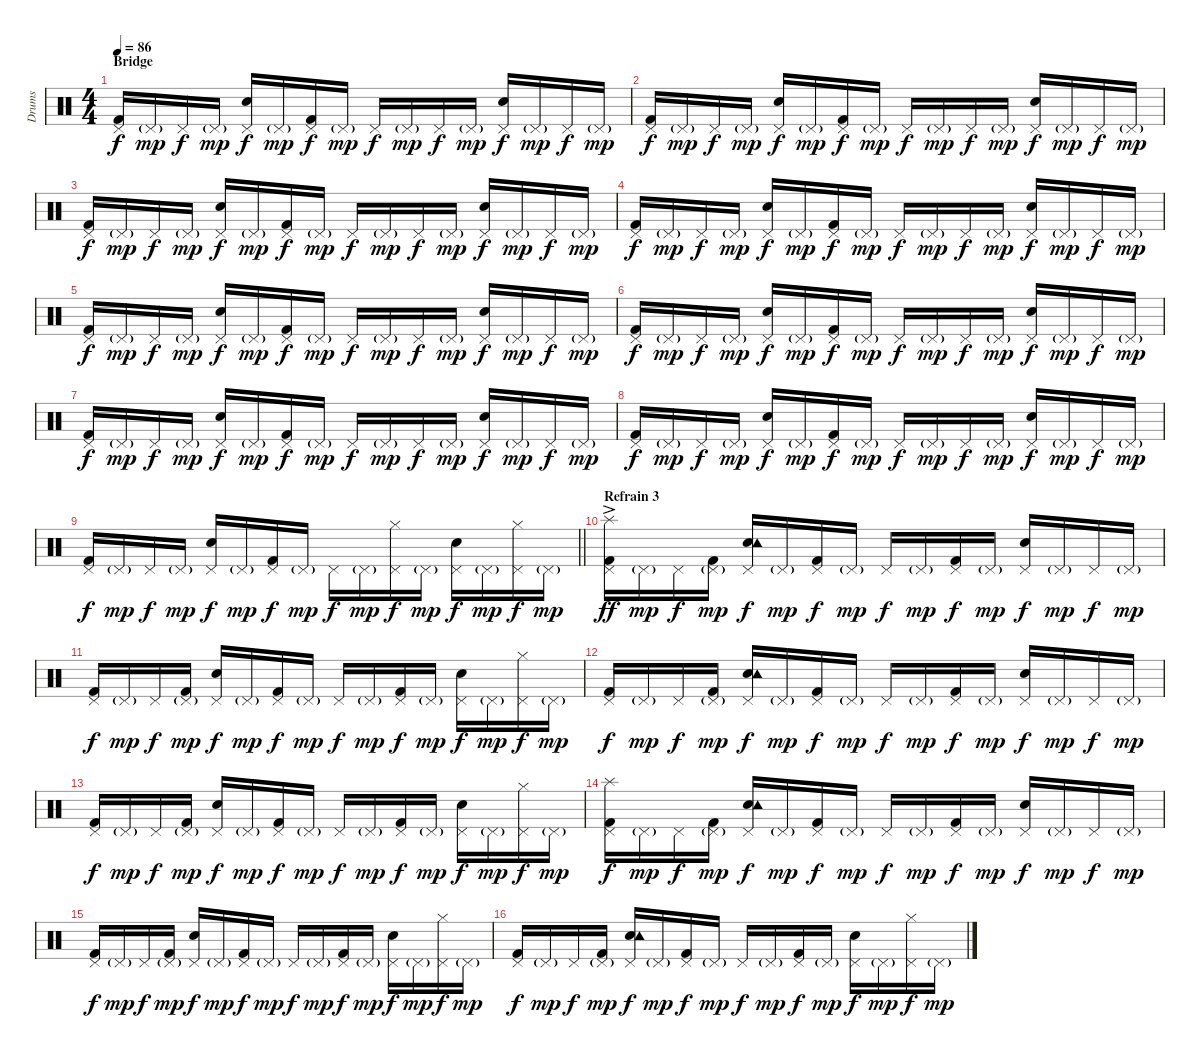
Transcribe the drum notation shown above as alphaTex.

\track ("Drums" "Drums") {instrument percussion}
\staff {score}
\articulation defaults
\ts (4 4)
\section ("" "Bridge")
\tempo 86
\clef neutral
\ks c
("Pedal Hi-Hat (hit)" "Kick (hit) 2").16{dy f} "Pedal Hi-Hat (hit)"{g}.16{dy mp} "Pedal Hi-Hat (hit)".16{dy f} "Pedal Hi-Hat (hit)"{g}.16{dy mp} ("Pedal Hi-Hat (hit)" "Snare (hit) 2").16{dy f} "Pedal Hi-Hat (hit)"{g}.16{dy mp} ("Pedal Hi-Hat (hit)" "Kick (hit) 2").16{dy f} "Pedal Hi-Hat (hit)"{g}.16{dy mp} "Pedal Hi-Hat (hit)".16{dy f} "Pedal Hi-Hat (hit)"{g}.16{dy mp} "Pedal Hi-Hat (hit)".16{dy f} "Pedal Hi-Hat (hit)"{g}.16{dy mp} ("Pedal Hi-Hat (hit)" "Snare (hit) 2").16{dy f} "Pedal Hi-Hat (hit)"{g}.16{dy mp} "Pedal Hi-Hat (hit)".16{dy f} "Pedal Hi-Hat (hit)"{g}.16{dy mp} |
("Pedal Hi-Hat (hit)" "Kick (hit) 2").16{dy f} "Pedal Hi-Hat (hit)"{g}.16{dy mp} "Pedal Hi-Hat (hit)".16{dy f} "Pedal Hi-Hat (hit)"{g}.16{dy mp} ("Pedal Hi-Hat (hit)" "Snare (hit) 2").16{dy f} "Pedal Hi-Hat (hit)"{g}.16{dy mp} ("Pedal Hi-Hat (hit)" "Kick (hit) 2").16{dy f} "Pedal Hi-Hat (hit)"{g}.16{dy mp} "Pedal Hi-Hat (hit)".16{dy f} "Pedal Hi-Hat (hit)"{g}.16{dy mp} "Pedal Hi-Hat (hit)".16{dy f} "Pedal Hi-Hat (hit)"{g}.16{dy mp} ("Pedal Hi-Hat (hit)" "Snare (hit) 2").16{dy f} "Pedal Hi-Hat (hit)"{g}.16{dy mp} "Pedal Hi-Hat (hit)".16{dy f} "Pedal Hi-Hat (hit)"{g}.16{dy mp} |
("Pedal Hi-Hat (hit)" "Kick (hit) 2").16{dy f} "Pedal Hi-Hat (hit)"{g}.16{dy mp} "Pedal Hi-Hat (hit)".16{dy f} "Pedal Hi-Hat (hit)"{g}.16{dy mp} ("Pedal Hi-Hat (hit)" "Snare (hit) 2").16{dy f} "Pedal Hi-Hat (hit)"{g}.16{dy mp} ("Pedal Hi-Hat (hit)" "Kick (hit) 2").16{dy f} "Pedal Hi-Hat (hit)"{g}.16{dy mp} "Pedal Hi-Hat (hit)".16{dy f} "Pedal Hi-Hat (hit)"{g}.16{dy mp} "Pedal Hi-Hat (hit)".16{dy f} "Pedal Hi-Hat (hit)"{g}.16{dy mp} ("Pedal Hi-Hat (hit)" "Snare (hit) 2").16{dy f} "Pedal Hi-Hat (hit)"{g}.16{dy mp} "Pedal Hi-Hat (hit)".16{dy f} "Pedal Hi-Hat (hit)"{g}.16{dy mp} |
("Pedal Hi-Hat (hit)" "Kick (hit) 2").16{dy f} "Pedal Hi-Hat (hit)"{g}.16{dy mp} "Pedal Hi-Hat (hit)".16{dy f} "Pedal Hi-Hat (hit)"{g}.16{dy mp} ("Pedal Hi-Hat (hit)" "Snare (hit) 2").16{dy f} "Pedal Hi-Hat (hit)"{g}.16{dy mp} ("Pedal Hi-Hat (hit)" "Kick (hit) 2").16{dy f} "Pedal Hi-Hat (hit)"{g}.16{dy mp} "Pedal Hi-Hat (hit)".16{dy f} "Pedal Hi-Hat (hit)"{g}.16{dy mp} "Pedal Hi-Hat (hit)".16{dy f} "Pedal Hi-Hat (hit)"{g}.16{dy mp} ("Pedal Hi-Hat (hit)" "Snare (hit) 2").16{dy f} "Pedal Hi-Hat (hit)"{g}.16{dy mp} "Pedal Hi-Hat (hit)".16{dy f} "Pedal Hi-Hat (hit)"{g}.16{dy mp} |
("Pedal Hi-Hat (hit)" "Kick (hit) 2").16{dy f} "Pedal Hi-Hat (hit)"{g}.16{dy mp} "Pedal Hi-Hat (hit)".16{dy f} "Pedal Hi-Hat (hit)"{g}.16{dy mp} ("Pedal Hi-Hat (hit)" "Snare (hit) 2").16{dy f} "Pedal Hi-Hat (hit)"{g}.16{dy mp} ("Pedal Hi-Hat (hit)" "Kick (hit) 2").16{dy f} "Pedal Hi-Hat (hit)"{g}.16{dy mp} "Pedal Hi-Hat (hit)".16{dy f} "Pedal Hi-Hat (hit)"{g}.16{dy mp} "Pedal Hi-Hat (hit)".16{dy f} "Pedal Hi-Hat (hit)"{g}.16{dy mp} ("Pedal Hi-Hat (hit)" "Snare (hit) 2").16{dy f} "Pedal Hi-Hat (hit)"{g}.16{dy mp} "Pedal Hi-Hat (hit)".16{dy f} "Pedal Hi-Hat (hit)"{g}.16{dy mp} |
("Pedal Hi-Hat (hit)" "Kick (hit) 2").16{dy f} "Pedal Hi-Hat (hit)"{g}.16{dy mp} "Pedal Hi-Hat (hit)".16{dy f} "Pedal Hi-Hat (hit)"{g}.16{dy mp} ("Pedal Hi-Hat (hit)" "Snare (hit) 2").16{dy f} "Pedal Hi-Hat (hit)"{g}.16{dy mp} ("Pedal Hi-Hat (hit)" "Kick (hit) 2").16{dy f} "Pedal Hi-Hat (hit)"{g}.16{dy mp} "Pedal Hi-Hat (hit)".16{dy f} "Pedal Hi-Hat (hit)"{g}.16{dy mp} "Pedal Hi-Hat (hit)".16{dy f} "Pedal Hi-Hat (hit)"{g}.16{dy mp} ("Pedal Hi-Hat (hit)" "Snare (hit) 2").16{dy f} "Pedal Hi-Hat (hit)"{g}.16{dy mp} "Pedal Hi-Hat (hit)".16{dy f} "Pedal Hi-Hat (hit)"{g}.16{dy mp} |
("Pedal Hi-Hat (hit)" "Kick (hit) 2").16{dy f} "Pedal Hi-Hat (hit)"{g}.16{dy mp} "Pedal Hi-Hat (hit)".16{dy f} "Pedal Hi-Hat (hit)"{g}.16{dy mp} ("Pedal Hi-Hat (hit)" "Snare (hit) 2").16{dy f} "Pedal Hi-Hat (hit)"{g}.16{dy mp} ("Pedal Hi-Hat (hit)" "Kick (hit) 2").16{dy f} "Pedal Hi-Hat (hit)"{g}.16{dy mp} "Pedal Hi-Hat (hit)".16{dy f} "Pedal Hi-Hat (hit)"{g}.16{dy mp} "Pedal Hi-Hat (hit)".16{dy f} "Pedal Hi-Hat (hit)"{g}.16{dy mp} ("Pedal Hi-Hat (hit)" "Snare (hit) 2").16{dy f} "Pedal Hi-Hat (hit)"{g}.16{dy mp} "Pedal Hi-Hat (hit)".16{dy f} "Pedal Hi-Hat (hit)"{g}.16{dy mp} |
("Pedal Hi-Hat (hit)" "Kick (hit) 2").16{dy f} "Pedal Hi-Hat (hit)"{g}.16{dy mp} "Pedal Hi-Hat (hit)".16{dy f} "Pedal Hi-Hat (hit)"{g}.16{dy mp} ("Pedal Hi-Hat (hit)" "Snare (hit) 2").16{dy f} "Pedal Hi-Hat (hit)"{g}.16{dy mp} ("Pedal Hi-Hat (hit)" "Kick (hit) 2").16{dy f} "Pedal Hi-Hat (hit)"{g}.16{dy mp} "Pedal Hi-Hat (hit)".16{dy f} "Pedal Hi-Hat (hit)"{g}.16{dy mp} "Pedal Hi-Hat (hit)".16{dy f} "Pedal Hi-Hat (hit)"{g}.16{dy mp} ("Pedal Hi-Hat (hit)" "Snare (hit) 2").16{dy f} "Pedal Hi-Hat (hit)"{g}.16{dy mp} "Pedal Hi-Hat (hit)".16{dy f} "Pedal Hi-Hat (hit)"{g}.16{dy mp} |
\barLineRight lightlight
("Pedal Hi-Hat (hit)" "Kick (hit) 2").16{dy f} "Pedal Hi-Hat (hit)"{g}.16{dy mp} "Pedal Hi-Hat (hit)".16{dy f} "Pedal Hi-Hat (hit)"{g}.16{dy mp} ("Pedal Hi-Hat (hit)" "Snare (hit) 2").16{dy f} "Pedal Hi-Hat (hit)"{g}.16{dy mp} ("Pedal Hi-Hat (hit)" "Kick (hit) 2").16{dy f} "Pedal Hi-Hat (hit)"{g}.16{dy mp} "Pedal Hi-Hat (hit)".16{dy f} "Pedal Hi-Hat (hit)"{g}.16{dy mp} ("Pedal Hi-Hat (hit)" "Hi-Hat (closed)").16{dy f} "Pedal Hi-Hat (hit)"{g}.16{dy mp} ("Pedal Hi-Hat (hit)" "Snare (hit) 2").16{dy f} "Pedal Hi-Hat (hit)"{g}.16{dy mp} ("Pedal Hi-Hat (hit)" "Hi-Hat (closed)").16{dy f} "Pedal Hi-Hat (hit)"{g}.16{dy mp} |
\section ("" "Refrain 3")
("Pedal Hi-Hat (hit)" "Kick (hit) 2" "Splash (hit)"{ac}).16{dy ff} "Pedal Hi-Hat (hit)"{g}.16{dy mp} "Pedal Hi-Hat (hit)".16{dy f} ("Pedal Hi-Hat (hit)"{g} "Kick (hit) 2").16{dy mp} ("Pedal Hi-Hat (hit)" "Snare (hit) 2" "Tambourine (hit)").16{dy f} "Pedal Hi-Hat (hit)"{g}.16{dy mp} ("Pedal Hi-Hat (hit)" "Kick (hit) 2").16{dy f} "Pedal Hi-Hat (hit)"{g}.16{dy mp} "Pedal Hi-Hat (hit)".16{dy f} "Pedal Hi-Hat (hit)"{g}.16{dy mp} ("Pedal Hi-Hat (hit)" "Kick (hit) 2").16{dy f} "Pedal Hi-Hat (hit)"{g}.16{dy mp} ("Pedal Hi-Hat (hit)" "Snare (hit) 2").16{dy f} "Pedal Hi-Hat (hit)"{g}.16{dy mp} "Pedal Hi-Hat (hit)".16{dy f} "Pedal Hi-Hat (hit)"{g}.16{dy mp} |
("Pedal Hi-Hat (hit)" "Kick (hit) 2").16{dy f} "Pedal Hi-Hat (hit)"{g}.16{dy mp} "Pedal Hi-Hat (hit)".16{dy f} ("Pedal Hi-Hat (hit)"{g} "Kick (hit) 2").16{dy mp} ("Pedal Hi-Hat (hit)" "Snare (hit) 2").16{dy f} "Pedal Hi-Hat (hit)"{g}.16{dy mp} ("Pedal Hi-Hat (hit)" "Kick (hit) 2").16{dy f} "Pedal Hi-Hat (hit)"{g}.16{dy mp} "Pedal Hi-Hat (hit)".16{dy f} "Pedal Hi-Hat (hit)"{g}.16{dy mp} ("Pedal Hi-Hat (hit)" "Kick (hit) 2").16{dy f} "Pedal Hi-Hat (hit)"{g}.16{dy mp} ("Pedal Hi-Hat (hit)" "Snare (hit) 2").16{dy f} "Pedal Hi-Hat (hit)"{g}.16{dy mp} ("Pedal Hi-Hat (hit)" "Hi-Hat (closed)").16{dy f} "Pedal Hi-Hat (hit)"{g}.16{dy mp} |
("Pedal Hi-Hat (hit)" "Kick (hit) 2").16{dy f} "Pedal Hi-Hat (hit)"{g}.16{dy mp} "Pedal Hi-Hat (hit)".16{dy f} ("Pedal Hi-Hat (hit)"{g} "Kick (hit) 2").16{dy mp} ("Pedal Hi-Hat (hit)" "Snare (hit) 2" "Tambourine (hit)").16{dy f} "Pedal Hi-Hat (hit)"{g}.16{dy mp} ("Pedal Hi-Hat (hit)" "Kick (hit) 2").16{dy f} "Pedal Hi-Hat (hit)"{g}.16{dy mp} "Pedal Hi-Hat (hit)".16{dy f} "Pedal Hi-Hat (hit)"{g}.16{dy mp} ("Pedal Hi-Hat (hit)" "Kick (hit) 2").16{dy f} "Pedal Hi-Hat (hit)"{g}.16{dy mp} ("Pedal Hi-Hat (hit)" "Snare (hit) 2").16{dy f} "Pedal Hi-Hat (hit)"{g}.16{dy mp} "Pedal Hi-Hat (hit)".16{dy f} "Pedal Hi-Hat (hit)"{g}.16{dy mp} |
("Pedal Hi-Hat (hit)" "Kick (hit) 2").16{dy f} "Pedal Hi-Hat (hit)"{g}.16{dy mp} "Pedal Hi-Hat (hit)".16{dy f} ("Pedal Hi-Hat (hit)"{g} "Kick (hit) 2").16{dy mp} ("Pedal Hi-Hat (hit)" "Snare (hit) 2").16{dy f} "Pedal Hi-Hat (hit)"{g}.16{dy mp} ("Pedal Hi-Hat (hit)" "Kick (hit) 2").16{dy f} "Pedal Hi-Hat (hit)"{g}.16{dy mp} "Pedal Hi-Hat (hit)".16{dy f} "Pedal Hi-Hat (hit)"{g}.16{dy mp} ("Pedal Hi-Hat (hit)" "Kick (hit) 2").16{dy f} "Pedal Hi-Hat (hit)"{g}.16{dy mp} ("Pedal Hi-Hat (hit)" "Snare (hit) 2").16{dy f} "Pedal Hi-Hat (hit)"{g}.16{dy mp} ("Pedal Hi-Hat (hit)" "Hi-Hat (closed)").16{dy f} "Pedal Hi-Hat (hit)"{g}.16{dy mp} |
("Pedal Hi-Hat (hit)" "Kick (hit) 2" "Splash (hit)").16{dy f} "Pedal Hi-Hat (hit)"{g}.16{dy mp} "Pedal Hi-Hat (hit)".16{dy f} ("Pedal Hi-Hat (hit)"{g} "Kick (hit) 2").16{dy mp} ("Pedal Hi-Hat (hit)" "Snare (hit) 2" "Tambourine (hit)").16{dy f} "Pedal Hi-Hat (hit)"{g}.16{dy mp} ("Pedal Hi-Hat (hit)" "Kick (hit) 2").16{dy f} "Pedal Hi-Hat (hit)"{g}.16{dy mp} "Pedal Hi-Hat (hit)".16{dy f} "Pedal Hi-Hat (hit)"{g}.16{dy mp} ("Pedal Hi-Hat (hit)" "Kick (hit) 2").16{dy f} "Pedal Hi-Hat (hit)"{g}.16{dy mp} ("Pedal Hi-Hat (hit)" "Snare (hit) 2").16{dy f} "Pedal Hi-Hat (hit)"{g}.16{dy mp} "Pedal Hi-Hat (hit)".16{dy f} "Pedal Hi-Hat (hit)"{g}.16{dy mp} |
("Pedal Hi-Hat (hit)" "Kick (hit) 2").16{dy f} "Pedal Hi-Hat (hit)"{g}.16{dy mp} "Pedal Hi-Hat (hit)".16{dy f} ("Pedal Hi-Hat (hit)"{g} "Kick (hit) 2").16{dy mp} ("Pedal Hi-Hat (hit)" "Snare (hit) 2").16{dy f} "Pedal Hi-Hat (hit)"{g}.16{dy mp} ("Pedal Hi-Hat (hit)" "Kick (hit) 2").16{dy f} "Pedal Hi-Hat (hit)"{g}.16{dy mp} "Pedal Hi-Hat (hit)".16{dy f} "Pedal Hi-Hat (hit)"{g}.16{dy mp} ("Pedal Hi-Hat (hit)" "Kick (hit) 2").16{dy f} "Pedal Hi-Hat (hit)"{g}.16{dy mp} ("Pedal Hi-Hat (hit)" "Snare (hit) 2").16{dy f} "Pedal Hi-Hat (hit)"{g}.16{dy mp} ("Pedal Hi-Hat (hit)" "Hi-Hat (closed)").16{dy f} "Pedal Hi-Hat (hit)"{g}.16{dy mp} |
("Pedal Hi-Hat (hit)" "Kick (hit) 2").16{dy f} "Pedal Hi-Hat (hit)"{g}.16{dy mp} "Pedal Hi-Hat (hit)".16{dy f} ("Pedal Hi-Hat (hit)"{g} "Kick (hit) 2").16{dy mp} ("Pedal Hi-Hat (hit)" "Snare (hit) 2" "Tambourine (hit)").16{dy f} "Pedal Hi-Hat (hit)"{g}.16{dy mp} ("Pedal Hi-Hat (hit)" "Kick (hit) 2").16{dy f} "Pedal Hi-Hat (hit)"{g}.16{dy mp} "Pedal Hi-Hat (hit)".16{dy f} "Pedal Hi-Hat (hit)"{g}.16{dy mp} ("Pedal Hi-Hat (hit)" "Kick (hit) 2").16{dy f} "Pedal Hi-Hat (hit)"{g}.16{dy mp} ("Pedal Hi-Hat (hit)" "Snare (hit) 2").16{dy f} "Pedal Hi-Hat (hit)"{g}.16{dy mp} ("Pedal Hi-Hat (hit)" "Hi-Hat (closed)").16{dy f} "Pedal Hi-Hat (hit)"{g}.16{dy mp}
